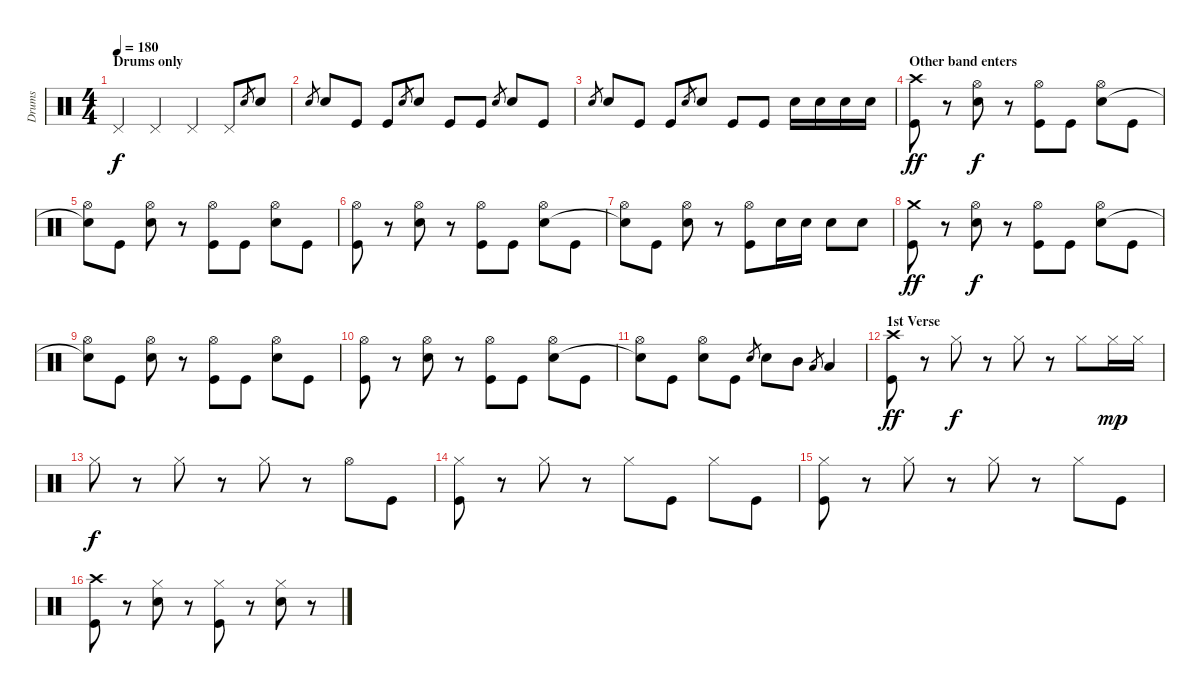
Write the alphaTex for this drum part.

\track ("Drums" "Drums") {instrument percussion}
\staff {score}
\articulation defaults
\ts (4 4)
\section ("" "Drums only")
\tempo 180
\clef neutral
\ks c "Pedal Hi-Hat (hit)".4{dy f} "Pedal Hi-Hat (hit)".4 "Pedal Hi-Hat (hit)".4 "Pedal Hi-Hat (hit)".8 "Snare (hit) 2".8{gr} "Snare (hit) 2".8
|
"Snare (hit) 2".8{gr} "Snare (hit) 2".8 "Kick (hit)".8 "Kick (hit)".8 "Snare (hit) 2".8{gr} "Snare (hit) 2".8 "Kick (hit)".8 "Kick (hit)".8 "Snare (hit) 2".8{gr} "Snare (hit) 2".8 "Kick (hit)".8 |
"Snare (hit) 2".8{gr} "Snare (hit) 2".8 "Kick (hit)".8 "Kick (hit)".8 "Snare (hit) 2".8{gr} "Snare (hit) 2".8 "Kick (hit)".8 "Kick (hit)".8 "Snare (hit) 2".16 "Snare (hit) 2".16 "Snare (hit) 2".16 "Snare (hit) 2".16 |
\section ("" "Other band enters")
("Crash high (hit)" "Kick (hit)").8{dy ff} r.8 ("Hi-Hat (open)" "Snare (hit) 2").8{dy f} r.8 ("Hi-Hat (open)" "Kick (hit)").8 "Kick (hit)".8 ("Hi-Hat (open)" "Snare (hit) 2").8 "Kick (hit)".8 |
("Hi-Hat (open)" "Snare (hit)"{t}).8 "Kick (hit)".8 ("Hi-Hat (open)" "Snare (hit) 2").8 r.8 ("Hi-Hat (open)" "Kick (hit)").8 "Kick (hit)".8 ("Hi-Hat (open)" "Snare (hit) 2").8 "Kick (hit)".8 |
("Hi-Hat (open)" "Kick (hit)").8 r.8 ("Hi-Hat (open)" "Snare (hit) 2").8 r.8 ("Hi-Hat (open)" "Kick (hit)").8 "Kick (hit)".8 ("Hi-Hat (open)" "Snare (hit) 2").8 "Kick (hit)".8 |
("Hi-Hat (open)" "Snare (hit)"{t}).8 "Kick (hit)".8 ("Hi-Hat (open)" "Snare (hit) 2").8 r.8 ("Hi-Hat (open)" "Kick (hit)").8 "Snare (hit) 2".16 "Snare (hit) 2".16 "Snare (hit) 2".8 "Snare (hit) 2".8 |
("Crash medium (hit)" "Kick (hit)").8{dy ff} r.8 ("Hi-Hat (open)" "Snare (hit) 2").8{dy f} r.8 ("Hi-Hat (open)" "Kick (hit)").8 "Kick (hit)".8 ("Hi-Hat (open)" "Snare (hit) 2").8 "Kick (hit)".8 |
("Hi-Hat (open)" "Snare (hit)"{t}).8 "Kick (hit)".8 ("Hi-Hat (open)" "Snare (hit) 2").8 r.8 ("Hi-Hat (open)" "Kick (hit)").8 "Kick (hit)".8 ("Hi-Hat (open)" "Snare (hit) 2").8 "Kick (hit)".8 |
("Hi-Hat (open)" "Kick (hit)").8 r.8 ("Hi-Hat (open)" "Snare (hit) 2").8 r.8 ("Hi-Hat (open)" "Kick (hit)").8 "Kick (hit)".8 ("Hi-Hat (open)" "Snare (hit) 2").8 "Kick (hit)".8 |
("Hi-Hat (open)" "Snare (hit)"{t}).8 "Kick (hit)".8 ("Hi-Hat (open)" "Snare (hit) 2").8 "Kick (hit)".8 "Snare (hit) 2".8{gr} "Snare (hit) 2".8 "Mid Tom (hit)".8 "Low Tom (hit)".8{gr} "Low Tom (hit)".4 |
\section ("" "1st Verse")
("Crash high (hit)" "Kick (hit)").8{dy ff} r.8 "Hi-Hat (closed)".8{dy f} r.8 "Hi-Hat (closed)".8 r.8 "Hi-Hat (closed)".8 "Hi-Hat (closed)".16{dy mp} "Hi-Hat (closed)".16 |
"Hi-Hat (closed)".8{dy f} r.8 "Hi-Hat (closed)".8 r.8 "Hi-Hat (closed)".8 r.8 "Hi-Hat (open)".8 "Kick (hit)".8 |
("Hi-Hat (closed)" "Kick (hit)").8 r.8 "Hi-Hat (closed)".8 r.8 "Hi-Hat (closed)".8 "Kick (hit)".8 "Hi-Hat (closed)".8 "Kick (hit)".8 |
("Hi-Hat (closed)" "Kick (hit)").8 r.8 "Hi-Hat (closed)".8 r.8 "Hi-Hat (closed)".8 r.8 "Hi-Hat (closed)".8 "Kick (hit)".8 |
("Crash high (hit)" "Kick (hit)").8 r.8 ("Hi-Hat (closed)" "Snare (hit) 2").8 r.8 ("Hi-Hat (closed)" "Kick (hit)").8 r.8 ("Hi-Hat (closed)" "Snare (hit) 2").8 r.8
